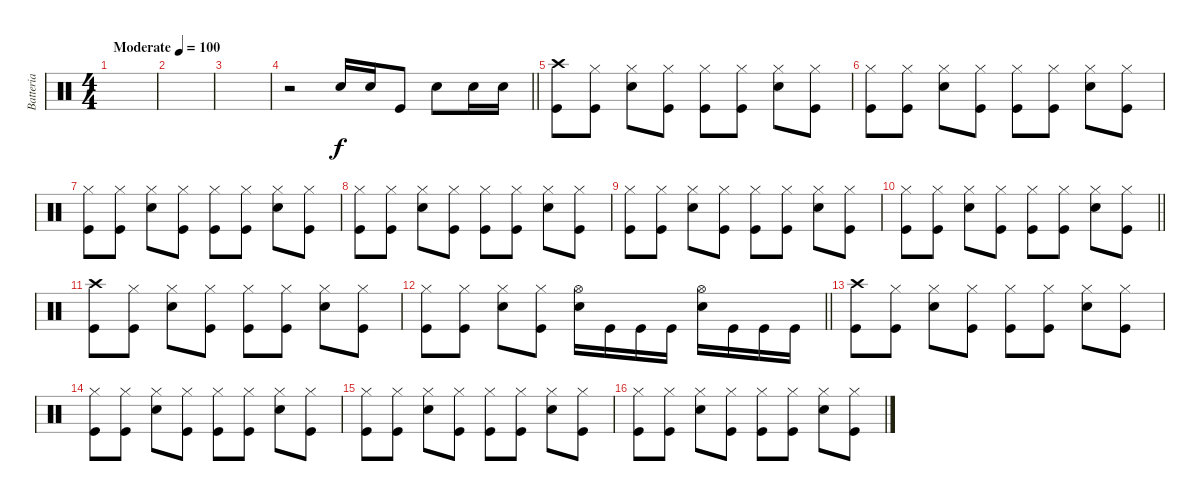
\track ("Batteria" "Batteria") {instrument percussion}
\staff {score}
\articulation defaults
\ts (4 4)
\tempo (100 "Moderate")
\clef neutral
\ks c
|
|
|
\barLineRight lightlight
r.2 "Snare (hit) 2".16 "Snare (hit) 2".16 "Kick (hit)".8 "Snare (hit) 2".8 "Snare (hit) 2".16 "Snare (hit) 2".16 |
("Crash high (hit)" "Kick (hit)").8 ("Hi-Hat (closed)" "Kick (hit)").8 ("Snare (hit) 2" "Hi-Hat (closed)").8 ("Hi-Hat (closed)" "Kick (hit)").8 ("Hi-Hat (closed)" "Kick (hit)").8 ("Hi-Hat (closed)" "Kick (hit)").8 ("Snare (hit) 2" "Hi-Hat (closed)").8 ("Hi-Hat (closed)" "Kick (hit)").8 |
("Hi-Hat (closed)" "Kick (hit)").8 ("Hi-Hat (closed)" "Kick (hit)").8 ("Snare (hit) 2" "Hi-Hat (closed)").8 ("Hi-Hat (closed)" "Kick (hit)").8 ("Hi-Hat (closed)" "Kick (hit)").8 ("Hi-Hat (closed)" "Kick (hit)").8 ("Snare (hit) 2" "Hi-Hat (closed)").8 ("Hi-Hat (closed)" "Kick (hit)").8 |
("Hi-Hat (closed)" "Kick (hit)").8 ("Hi-Hat (closed)" "Kick (hit)").8 ("Snare (hit) 2" "Hi-Hat (closed)").8 ("Hi-Hat (closed)" "Kick (hit)").8 ("Hi-Hat (closed)" "Kick (hit)").8 ("Hi-Hat (closed)" "Kick (hit)").8 ("Snare (hit) 2" "Hi-Hat (closed)").8 ("Hi-Hat (closed)" "Kick (hit)").8 |
("Hi-Hat (closed)" "Kick (hit)").8 ("Hi-Hat (closed)" "Kick (hit)").8 ("Snare (hit) 2" "Hi-Hat (closed)").8 ("Hi-Hat (closed)" "Kick (hit)").8 ("Hi-Hat (closed)" "Kick (hit)").8 ("Hi-Hat (closed)" "Kick (hit)").8 ("Snare (hit) 2" "Hi-Hat (closed)").8 ("Hi-Hat (closed)" "Kick (hit)").8 |
("Hi-Hat (closed)" "Kick (hit)").8 ("Hi-Hat (closed)" "Kick (hit)").8 ("Snare (hit) 2" "Hi-Hat (closed)").8 ("Hi-Hat (closed)" "Kick (hit)").8 ("Hi-Hat (closed)" "Kick (hit)").8 ("Hi-Hat (closed)" "Kick (hit)").8 ("Snare (hit) 2" "Hi-Hat (closed)").8 ("Hi-Hat (closed)" "Kick (hit)").8 |
\barLineRight lightlight
("Hi-Hat (closed)" "Kick (hit)").8 ("Hi-Hat (closed)" "Kick (hit)").8 ("Snare (hit) 2" "Hi-Hat (closed)").8 ("Hi-Hat (closed)" "Kick (hit)").8 ("Hi-Hat (closed)" "Kick (hit)").8 ("Hi-Hat (closed)" "Kick (hit)").8 ("Snare (hit) 2" "Hi-Hat (closed)").8 ("Hi-Hat (closed)" "Kick (hit)").8 |
("Crash high (hit)" "Kick (hit)").8 ("Hi-Hat (closed)" "Kick (hit)").8 ("Snare (hit) 2" "Hi-Hat (closed)").8 ("Hi-Hat (closed)" "Kick (hit)").8 ("Hi-Hat (closed)" "Kick (hit)").8 ("Hi-Hat (closed)" "Kick (hit)").8 ("Snare (hit) 2" "Hi-Hat (closed)").8 ("Hi-Hat (closed)" "Kick (hit)").8 |
\barLineRight lightlight
("Hi-Hat (closed)" "Kick (hit)").8 ("Hi-Hat (closed)" "Kick (hit)").8 ("Snare (hit) 2" "Hi-Hat (closed)").8 ("Hi-Hat (closed)" "Kick (hit)").8 ("Snare (hit) 2" "Hi-Hat (open)").16 "Kick (hit)".16 "Kick (hit)".16 "Kick (hit)".16 ("Snare (hit) 2" "Hi-Hat (open)").16 "Kick (hit)".16 "Kick (hit)".16 "Kick (hit)".16 |
("Crash high (hit)" "Kick (hit)").8 ("Hi-Hat (closed)" "Kick (hit)").8 ("Snare (hit) 2" "Hi-Hat (closed)").8 ("Hi-Hat (closed)" "Kick (hit)").8 ("Hi-Hat (closed)" "Kick (hit)").8 ("Hi-Hat (closed)" "Kick (hit)").8 ("Snare (hit) 2" "Hi-Hat (closed)").8 ("Hi-Hat (closed)" "Kick (hit)").8 |
("Hi-Hat (closed)" "Kick (hit)").8 ("Hi-Hat (closed)" "Kick (hit)").8 ("Snare (hit) 2" "Hi-Hat (closed)").8 ("Hi-Hat (closed)" "Kick (hit)").8 ("Hi-Hat (closed)" "Kick (hit)").8 ("Hi-Hat (closed)" "Kick (hit)").8 ("Snare (hit) 2" "Hi-Hat (closed)").8 ("Hi-Hat (closed)" "Kick (hit)").8 |
("Hi-Hat (closed)" "Kick (hit)").8 ("Hi-Hat (closed)" "Kick (hit)").8 ("Snare (hit) 2" "Hi-Hat (closed)").8 ("Hi-Hat (closed)" "Kick (hit)").8 ("Hi-Hat (closed)" "Kick (hit)").8 ("Hi-Hat (closed)" "Kick (hit)").8 ("Snare (hit) 2" "Hi-Hat (closed)").8 ("Hi-Hat (closed)" "Kick (hit)").8 |
("Hi-Hat (closed)" "Kick (hit)").8 ("Hi-Hat (closed)" "Kick (hit)").8 ("Snare (hit) 2" "Hi-Hat (closed)").8 ("Hi-Hat (closed)" "Kick (hit)").8 ("Hi-Hat (closed)" "Kick (hit)").8 ("Hi-Hat (closed)" "Kick (hit)").8 ("Snare (hit) 2" "Hi-Hat (closed)").8 ("Hi-Hat (closed)" "Kick (hit)").8
